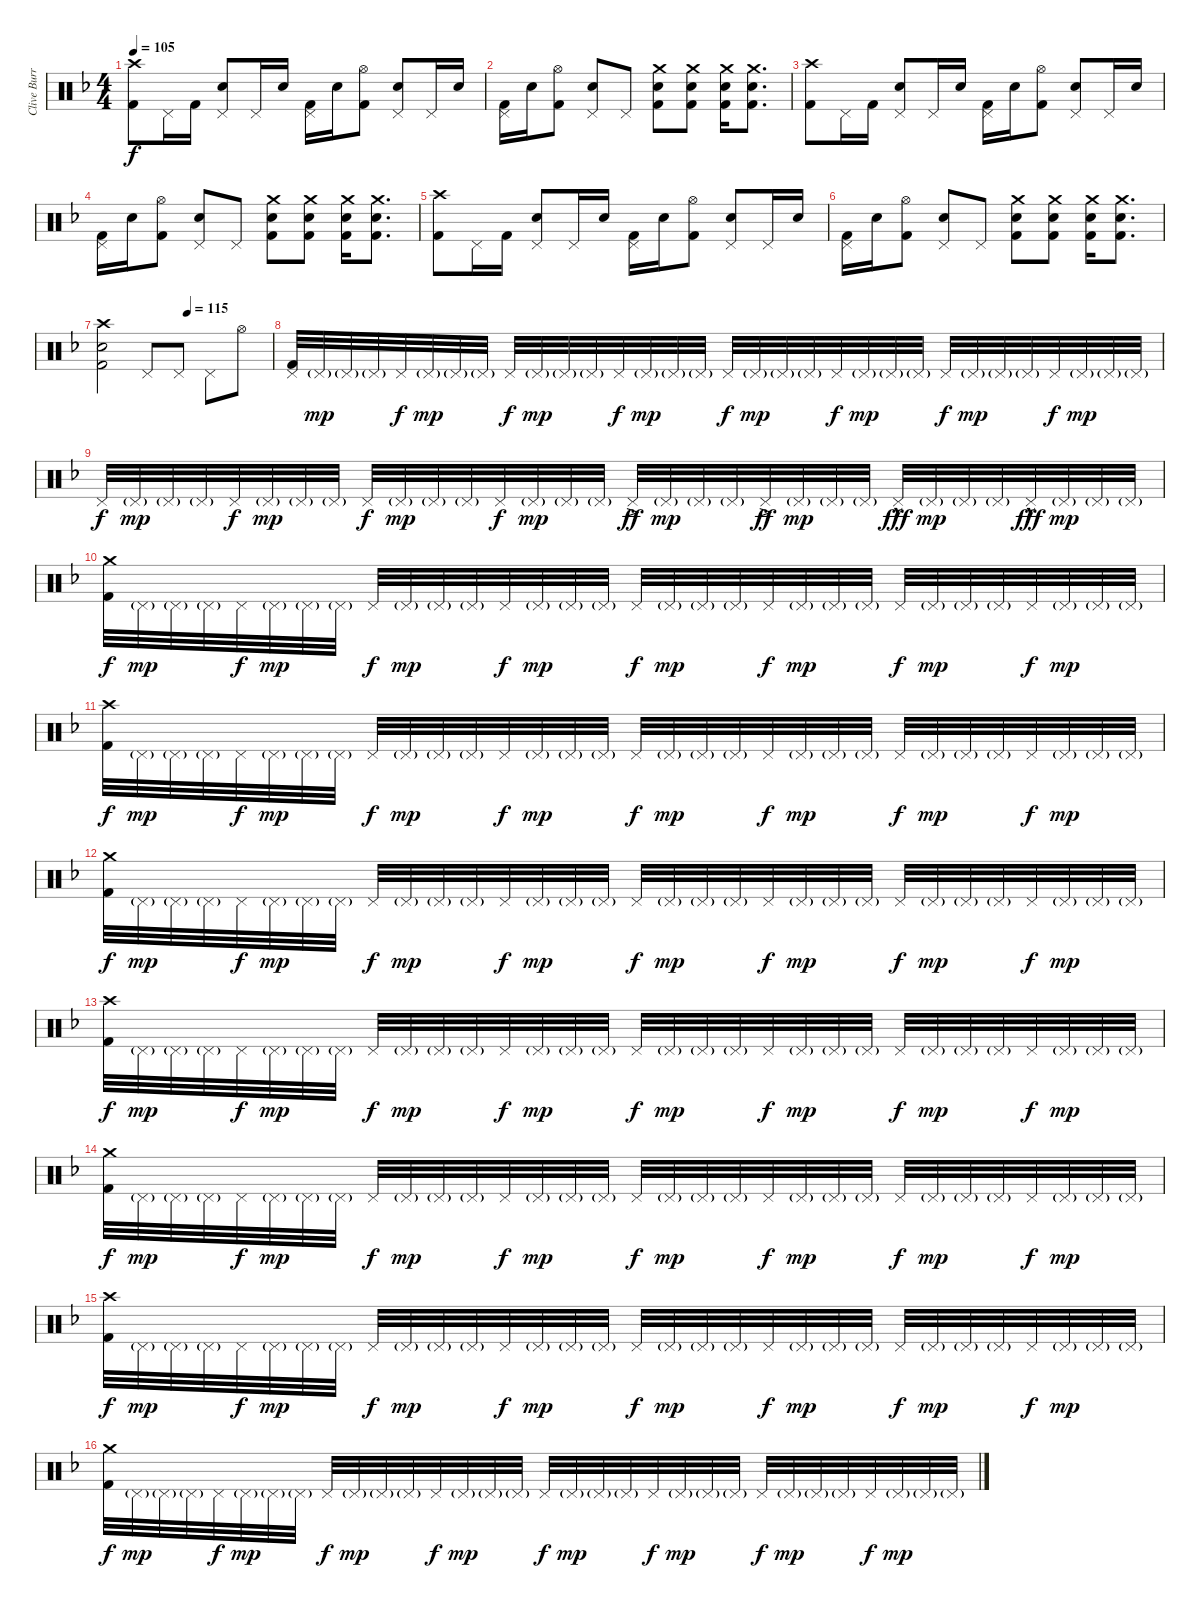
\track ("Clive Burr" "Clive Burr") {instrument percussion}
\staff {score}
\articulation defaults
\ts (4 4)
\tempo 105
\clef neutral
\ks dminor
("Crash high (hit)" "Kick (hit) 2").8{dy f} "Pedal Hi-Hat (hit)".16 "Kick (hit) 2".16 ("Pedal Hi-Hat (hit)" "Snare (hit) 2").8 "Pedal Hi-Hat (hit)".16 "Snare (hit) 2".16 ("Pedal Hi-Hat (hit)" "Kick (hit) 2").16 "Snare (hit) 2".16 ("Hi-Hat (open)" "Kick (hit) 2").8 ("Pedal Hi-Hat (hit)" "Snare (hit) 2").8 "Pedal Hi-Hat (hit)".16 "Snare (hit) 2".16 |
("Pedal Hi-Hat (hit)" "Kick (hit) 2").16 "Snare (hit) 2".16 ("Hi-Hat (open)" "Kick (hit) 2").8 ("Pedal Hi-Hat (hit)" "Snare (hit) 2").8 "Pedal Hi-Hat (hit)".8 ("Crash medium (hit)" "Snare (hit) 2" "Kick (hit) 2").8 ("Crash medium (hit)" "Snare (hit) 2" "Kick (hit) 2").8 ("Crash medium (hit)" "Snare (hit) 2" "Kick (hit) 2").16 ("Crash medium (hit)" "Snare (hit) 2" "Kick (hit) 2").8{d} |
("Crash high (hit)" "Kick (hit) 2").8 "Pedal Hi-Hat (hit)".16 "Kick (hit) 2".16 ("Pedal Hi-Hat (hit)" "Snare (hit) 2").8 "Pedal Hi-Hat (hit)".16 "Snare (hit) 2".16 ("Pedal Hi-Hat (hit)" "Kick (hit) 2").16 "Snare (hit) 2".16 ("Hi-Hat (open)" "Kick (hit) 2").8 ("Pedal Hi-Hat (hit)" "Snare (hit) 2").8 "Pedal Hi-Hat (hit)".16 "Snare (hit) 2".16 |
("Pedal Hi-Hat (hit)" "Kick (hit) 2").16 "Snare (hit) 2".16 ("Hi-Hat (open)" "Kick (hit) 2").8 ("Pedal Hi-Hat (hit)" "Snare (hit) 2").8 "Pedal Hi-Hat (hit)".8 ("Crash medium (hit)" "Snare (hit) 2" "Kick (hit) 2").8 ("Crash medium (hit)" "Snare (hit) 2" "Kick (hit) 2").8 ("Crash medium (hit)" "Snare (hit) 2" "Kick (hit) 2").16 ("Crash medium (hit)" "Snare (hit) 2" "Kick (hit) 2").8{d} |
("Crash high (hit)" "Kick (hit) 2").8 "Pedal Hi-Hat (hit)".16 "Kick (hit) 2".16 ("Pedal Hi-Hat (hit)" "Snare (hit) 2").8 "Pedal Hi-Hat (hit)".16 "Snare (hit) 2".16 ("Pedal Hi-Hat (hit)" "Kick (hit) 2").16 "Snare (hit) 2".16 ("Hi-Hat (open)" "Kick (hit) 2").8 ("Pedal Hi-Hat (hit)" "Snare (hit) 2").8 "Pedal Hi-Hat (hit)".16 "Snare (hit) 2".16 |
("Pedal Hi-Hat (hit)" "Kick (hit) 2").16 "Snare (hit) 2".16 ("Hi-Hat (open)" "Kick (hit) 2").8 ("Pedal Hi-Hat (hit)" "Snare (hit) 2").8 "Pedal Hi-Hat (hit)".8 ("Crash medium (hit)" "Snare (hit) 2" "Kick (hit) 2").8 ("Crash medium (hit)" "Snare (hit) 2" "Kick (hit) 2").8 ("Crash medium (hit)" "Snare (hit) 2" "Kick (hit) 2").16 ("Crash medium (hit)" "Snare (hit) 2" "Kick (hit) 2").8{d} |
\tempo (115 0.5)
("Crash high (hit)" "Snare (hit) 2" "Kick (hit) 2").2 "Pedal Hi-Hat (hit)".8 "Pedal Hi-Hat (hit)".8 "Pedal Hi-Hat (hit)".8 "Hi-Hat (open)".8 |
("Pedal Hi-Hat (hit)" "Kick (hit) 2").32 "Pedal Hi-Hat (hit)"{g}.32{dy mp} "Pedal Hi-Hat (hit)"{g}.32 "Pedal Hi-Hat (hit)"{g}.32 "Pedal Hi-Hat (hit)".32{dy f} "Pedal Hi-Hat (hit)"{g}.32{dy mp} "Pedal Hi-Hat (hit)"{g}.32 "Pedal Hi-Hat (hit)"{g}.32 "Pedal Hi-Hat (hit)".32{dy f} "Pedal Hi-Hat (hit)"{g}.32{dy mp} "Pedal Hi-Hat (hit)"{g}.32 "Pedal Hi-Hat (hit)"{g}.32 "Pedal Hi-Hat (hit)".32{dy f} "Pedal Hi-Hat (hit)"{g}.32{dy mp} "Pedal Hi-Hat (hit)"{g}.32 "Pedal Hi-Hat (hit)"{g}.32 "Pedal Hi-Hat (hit)".32{dy f} "Pedal Hi-Hat (hit)"{g}.32{dy mp} "Pedal Hi-Hat (hit)"{g}.32 "Pedal Hi-Hat (hit)"{g}.32 "Pedal Hi-Hat (hit)".32{dy f} "Pedal Hi-Hat (hit)"{g}.32{dy mp} "Pedal Hi-Hat (hit)"{g}.32 "Pedal Hi-Hat (hit)"{g}.32 "Pedal Hi-Hat (hit)".32{dy f} "Pedal Hi-Hat (hit)"{g}.32{dy mp} "Pedal Hi-Hat (hit)"{g}.32 "Pedal Hi-Hat (hit)"{g}.32 "Pedal Hi-Hat (hit)".32{dy f} "Pedal Hi-Hat (hit)"{g}.32{dy mp} "Pedal Hi-Hat (hit)"{g}.32 "Pedal Hi-Hat (hit)"{g}.32 |
"Pedal Hi-Hat (hit)".32{dy f} "Pedal Hi-Hat (hit)"{g}.32{dy mp} "Pedal Hi-Hat (hit)"{g}.32 "Pedal Hi-Hat (hit)"{g}.32 "Pedal Hi-Hat (hit)".32{dy f} "Pedal Hi-Hat (hit)"{g}.32{dy mp} "Pedal Hi-Hat (hit)"{g}.32 "Pedal Hi-Hat (hit)"{g}.32 "Pedal Hi-Hat (hit)".32{dy f} "Pedal Hi-Hat (hit)"{g}.32{dy mp} "Pedal Hi-Hat (hit)"{g}.32 "Pedal Hi-Hat (hit)"{g}.32 "Pedal Hi-Hat (hit)".32{dy f} "Pedal Hi-Hat (hit)"{g}.32{dy mp} "Pedal Hi-Hat (hit)"{g}.32 "Pedal Hi-Hat (hit)"{g}.32 "Pedal Hi-Hat (hit)"{ac}.32{dy ff} "Pedal Hi-Hat (hit)"{g}.32{dy mp} "Pedal Hi-Hat (hit)"{g}.32 "Pedal Hi-Hat (hit)"{g}.32 "Pedal Hi-Hat (hit)"{ac}.32{dy ff} "Pedal Hi-Hat (hit)"{g}.32{dy mp} "Pedal Hi-Hat (hit)"{g}.32 "Pedal Hi-Hat (hit)"{g}.32 "Pedal Hi-Hat (hit)"{hac}.32{dy fff} "Pedal Hi-Hat (hit)"{g}.32{dy mp} "Pedal Hi-Hat (hit)"{g}.32 "Pedal Hi-Hat (hit)"{g}.32 "Pedal Hi-Hat (hit)"{hac}.32{dy fff} "Pedal Hi-Hat (hit)"{g}.32{dy mp} "Pedal Hi-Hat (hit)"{g}.32 "Pedal Hi-Hat (hit)"{g}.32 |
("Crash medium (hit)" "Kick (hit) 2").32{dy f} "Pedal Hi-Hat (hit)"{g}.32{dy mp} "Pedal Hi-Hat (hit)"{g}.32 "Pedal Hi-Hat (hit)"{g}.32 "Pedal Hi-Hat (hit)".32{dy f} "Pedal Hi-Hat (hit)"{g}.32{dy mp} "Pedal Hi-Hat (hit)"{g}.32 "Pedal Hi-Hat (hit)"{g}.32 "Pedal Hi-Hat (hit)".32{dy f} "Pedal Hi-Hat (hit)"{g}.32{dy mp} "Pedal Hi-Hat (hit)"{g}.32 "Pedal Hi-Hat (hit)"{g}.32 "Pedal Hi-Hat (hit)".32{dy f} "Pedal Hi-Hat (hit)"{g}.32{dy mp} "Pedal Hi-Hat (hit)"{g}.32 "Pedal Hi-Hat (hit)"{g}.32 "Pedal Hi-Hat (hit)".32{dy f} "Pedal Hi-Hat (hit)"{g}.32{dy mp} "Pedal Hi-Hat (hit)"{g}.32 "Pedal Hi-Hat (hit)"{g}.32 "Pedal Hi-Hat (hit)".32{dy f} "Pedal Hi-Hat (hit)"{g}.32{dy mp} "Pedal Hi-Hat (hit)"{g}.32 "Pedal Hi-Hat (hit)"{g}.32 "Pedal Hi-Hat (hit)".32{dy f} "Pedal Hi-Hat (hit)"{g}.32{dy mp} "Pedal Hi-Hat (hit)"{g}.32 "Pedal Hi-Hat (hit)"{g}.32 "Pedal Hi-Hat (hit)".32{dy f} "Pedal Hi-Hat (hit)"{g}.32{dy mp} "Pedal Hi-Hat (hit)"{g}.32 "Pedal Hi-Hat (hit)"{g}.32 |
("Crash high (hit)" "Kick (hit) 2").32{dy f} "Pedal Hi-Hat (hit)"{g}.32{dy mp} "Pedal Hi-Hat (hit)"{g}.32 "Pedal Hi-Hat (hit)"{g}.32 "Pedal Hi-Hat (hit)".32{dy f} "Pedal Hi-Hat (hit)"{g}.32{dy mp} "Pedal Hi-Hat (hit)"{g}.32 "Pedal Hi-Hat (hit)"{g}.32 "Pedal Hi-Hat (hit)".32{dy f} "Pedal Hi-Hat (hit)"{g}.32{dy mp} "Pedal Hi-Hat (hit)"{g}.32 "Pedal Hi-Hat (hit)"{g}.32 "Pedal Hi-Hat (hit)".32{dy f} "Pedal Hi-Hat (hit)"{g}.32{dy mp} "Pedal Hi-Hat (hit)"{g}.32 "Pedal Hi-Hat (hit)"{g}.32 "Pedal Hi-Hat (hit)".32{dy f} "Pedal Hi-Hat (hit)"{g}.32{dy mp} "Pedal Hi-Hat (hit)"{g}.32 "Pedal Hi-Hat (hit)"{g}.32 "Pedal Hi-Hat (hit)".32{dy f} "Pedal Hi-Hat (hit)"{g}.32{dy mp} "Pedal Hi-Hat (hit)"{g}.32 "Pedal Hi-Hat (hit)"{g}.32 "Pedal Hi-Hat (hit)".32{dy f} "Pedal Hi-Hat (hit)"{g}.32{dy mp} "Pedal Hi-Hat (hit)"{g}.32 "Pedal Hi-Hat (hit)"{g}.32 "Pedal Hi-Hat (hit)".32{dy f} "Pedal Hi-Hat (hit)"{g}.32{dy mp} "Pedal Hi-Hat (hit)"{g}.32 "Pedal Hi-Hat (hit)"{g}.32 |
("Crash medium (hit)" "Kick (hit) 2").32{dy f} "Pedal Hi-Hat (hit)"{g}.32{dy mp} "Pedal Hi-Hat (hit)"{g}.32 "Pedal Hi-Hat (hit)"{g}.32 "Pedal Hi-Hat (hit)".32{dy f} "Pedal Hi-Hat (hit)"{g}.32{dy mp} "Pedal Hi-Hat (hit)"{g}.32 "Pedal Hi-Hat (hit)"{g}.32 "Pedal Hi-Hat (hit)".32{dy f} "Pedal Hi-Hat (hit)"{g}.32{dy mp} "Pedal Hi-Hat (hit)"{g}.32 "Pedal Hi-Hat (hit)"{g}.32 "Pedal Hi-Hat (hit)".32{dy f} "Pedal Hi-Hat (hit)"{g}.32{dy mp} "Pedal Hi-Hat (hit)"{g}.32 "Pedal Hi-Hat (hit)"{g}.32 "Pedal Hi-Hat (hit)".32{dy f} "Pedal Hi-Hat (hit)"{g}.32{dy mp} "Pedal Hi-Hat (hit)"{g}.32 "Pedal Hi-Hat (hit)"{g}.32 "Pedal Hi-Hat (hit)".32{dy f} "Pedal Hi-Hat (hit)"{g}.32{dy mp} "Pedal Hi-Hat (hit)"{g}.32 "Pedal Hi-Hat (hit)"{g}.32 "Pedal Hi-Hat (hit)".32{dy f} "Pedal Hi-Hat (hit)"{g}.32{dy mp} "Pedal Hi-Hat (hit)"{g}.32 "Pedal Hi-Hat (hit)"{g}.32 "Pedal Hi-Hat (hit)".32{dy f} "Pedal Hi-Hat (hit)"{g}.32{dy mp} "Pedal Hi-Hat (hit)"{g}.32 "Pedal Hi-Hat (hit)"{g}.32 |
("Crash high (hit)" "Kick (hit) 2").32{dy f} "Pedal Hi-Hat (hit)"{g}.32{dy mp} "Pedal Hi-Hat (hit)"{g}.32 "Pedal Hi-Hat (hit)"{g}.32 "Pedal Hi-Hat (hit)".32{dy f} "Pedal Hi-Hat (hit)"{g}.32{dy mp} "Pedal Hi-Hat (hit)"{g}.32 "Pedal Hi-Hat (hit)"{g}.32 "Pedal Hi-Hat (hit)".32{dy f} "Pedal Hi-Hat (hit)"{g}.32{dy mp} "Pedal Hi-Hat (hit)"{g}.32 "Pedal Hi-Hat (hit)"{g}.32 "Pedal Hi-Hat (hit)".32{dy f} "Pedal Hi-Hat (hit)"{g}.32{dy mp} "Pedal Hi-Hat (hit)"{g}.32 "Pedal Hi-Hat (hit)"{g}.32 "Pedal Hi-Hat (hit)".32{dy f} "Pedal Hi-Hat (hit)"{g}.32{dy mp} "Pedal Hi-Hat (hit)"{g}.32 "Pedal Hi-Hat (hit)"{g}.32 "Pedal Hi-Hat (hit)".32{dy f} "Pedal Hi-Hat (hit)"{g}.32{dy mp} "Pedal Hi-Hat (hit)"{g}.32 "Pedal Hi-Hat (hit)"{g}.32 "Pedal Hi-Hat (hit)".32{dy f} "Pedal Hi-Hat (hit)"{g}.32{dy mp} "Pedal Hi-Hat (hit)"{g}.32 "Pedal Hi-Hat (hit)"{g}.32 "Pedal Hi-Hat (hit)".32{dy f} "Pedal Hi-Hat (hit)"{g}.32{dy mp} "Pedal Hi-Hat (hit)"{g}.32 "Pedal Hi-Hat (hit)"{g}.32 |
("Crash medium (hit)" "Kick (hit) 2").32{dy f} "Pedal Hi-Hat (hit)"{g}.32{dy mp} "Pedal Hi-Hat (hit)"{g}.32 "Pedal Hi-Hat (hit)"{g}.32 "Pedal Hi-Hat (hit)".32{dy f} "Pedal Hi-Hat (hit)"{g}.32{dy mp} "Pedal Hi-Hat (hit)"{g}.32 "Pedal Hi-Hat (hit)"{g}.32 "Pedal Hi-Hat (hit)".32{dy f} "Pedal Hi-Hat (hit)"{g}.32{dy mp} "Pedal Hi-Hat (hit)"{g}.32 "Pedal Hi-Hat (hit)"{g}.32 "Pedal Hi-Hat (hit)".32{dy f} "Pedal Hi-Hat (hit)"{g}.32{dy mp} "Pedal Hi-Hat (hit)"{g}.32 "Pedal Hi-Hat (hit)"{g}.32 "Pedal Hi-Hat (hit)".32{dy f} "Pedal Hi-Hat (hit)"{g}.32{dy mp} "Pedal Hi-Hat (hit)"{g}.32 "Pedal Hi-Hat (hit)"{g}.32 "Pedal Hi-Hat (hit)".32{dy f} "Pedal Hi-Hat (hit)"{g}.32{dy mp} "Pedal Hi-Hat (hit)"{g}.32 "Pedal Hi-Hat (hit)"{g}.32 "Pedal Hi-Hat (hit)".32{dy f} "Pedal Hi-Hat (hit)"{g}.32{dy mp} "Pedal Hi-Hat (hit)"{g}.32 "Pedal Hi-Hat (hit)"{g}.32 "Pedal Hi-Hat (hit)".32{dy f} "Pedal Hi-Hat (hit)"{g}.32{dy mp} "Pedal Hi-Hat (hit)"{g}.32 "Pedal Hi-Hat (hit)"{g}.32 |
("Crash high (hit)" "Kick (hit) 2").32{dy f} "Pedal Hi-Hat (hit)"{g}.32{dy mp} "Pedal Hi-Hat (hit)"{g}.32 "Pedal Hi-Hat (hit)"{g}.32 "Pedal Hi-Hat (hit)".32{dy f} "Pedal Hi-Hat (hit)"{g}.32{dy mp} "Pedal Hi-Hat (hit)"{g}.32 "Pedal Hi-Hat (hit)"{g}.32 "Pedal Hi-Hat (hit)".32{dy f} "Pedal Hi-Hat (hit)"{g}.32{dy mp} "Pedal Hi-Hat (hit)"{g}.32 "Pedal Hi-Hat (hit)"{g}.32 "Pedal Hi-Hat (hit)".32{dy f} "Pedal Hi-Hat (hit)"{g}.32{dy mp} "Pedal Hi-Hat (hit)"{g}.32 "Pedal Hi-Hat (hit)"{g}.32 "Pedal Hi-Hat (hit)".32{dy f} "Pedal Hi-Hat (hit)"{g}.32{dy mp} "Pedal Hi-Hat (hit)"{g}.32 "Pedal Hi-Hat (hit)"{g}.32 "Pedal Hi-Hat (hit)".32{dy f} "Pedal Hi-Hat (hit)"{g}.32{dy mp} "Pedal Hi-Hat (hit)"{g}.32 "Pedal Hi-Hat (hit)"{g}.32 "Pedal Hi-Hat (hit)".32{dy f} "Pedal Hi-Hat (hit)"{g}.32{dy mp} "Pedal Hi-Hat (hit)"{g}.32 "Pedal Hi-Hat (hit)"{g}.32 "Pedal Hi-Hat (hit)".32{dy f} "Pedal Hi-Hat (hit)"{g}.32{dy mp} "Pedal Hi-Hat (hit)"{g}.32 "Pedal Hi-Hat (hit)"{g}.32 |
("Crash medium (hit)" "Kick (hit) 2").32{dy f} "Pedal Hi-Hat (hit)"{g}.32{dy mp} "Pedal Hi-Hat (hit)"{g}.32 "Pedal Hi-Hat (hit)"{g}.32 "Pedal Hi-Hat (hit)".32{dy f} "Pedal Hi-Hat (hit)"{g}.32{dy mp} "Pedal Hi-Hat (hit)"{g}.32 "Pedal Hi-Hat (hit)"{g}.32 "Pedal Hi-Hat (hit)".32{dy f} "Pedal Hi-Hat (hit)"{g}.32{dy mp} "Pedal Hi-Hat (hit)"{g}.32 "Pedal Hi-Hat (hit)"{g}.32 "Pedal Hi-Hat (hit)".32{dy f} "Pedal Hi-Hat (hit)"{g}.32{dy mp} "Pedal Hi-Hat (hit)"{g}.32 "Pedal Hi-Hat (hit)"{g}.32 "Pedal Hi-Hat (hit)".32{dy f} "Pedal Hi-Hat (hit)"{g}.32{dy mp} "Pedal Hi-Hat (hit)"{g}.32 "Pedal Hi-Hat (hit)"{g}.32 "Pedal Hi-Hat (hit)".32{dy f} "Pedal Hi-Hat (hit)"{g}.32{dy mp} "Pedal Hi-Hat (hit)"{g}.32 "Pedal Hi-Hat (hit)"{g}.32 "Pedal Hi-Hat (hit)".32{dy f} "Pedal Hi-Hat (hit)"{g}.32{dy mp} "Pedal Hi-Hat (hit)"{g}.32 "Pedal Hi-Hat (hit)"{g}.32 "Pedal Hi-Hat (hit)".32{dy f} "Pedal Hi-Hat (hit)"{g}.32{dy mp} "Pedal Hi-Hat (hit)"{g}.32 "Pedal Hi-Hat (hit)"{g}.32
